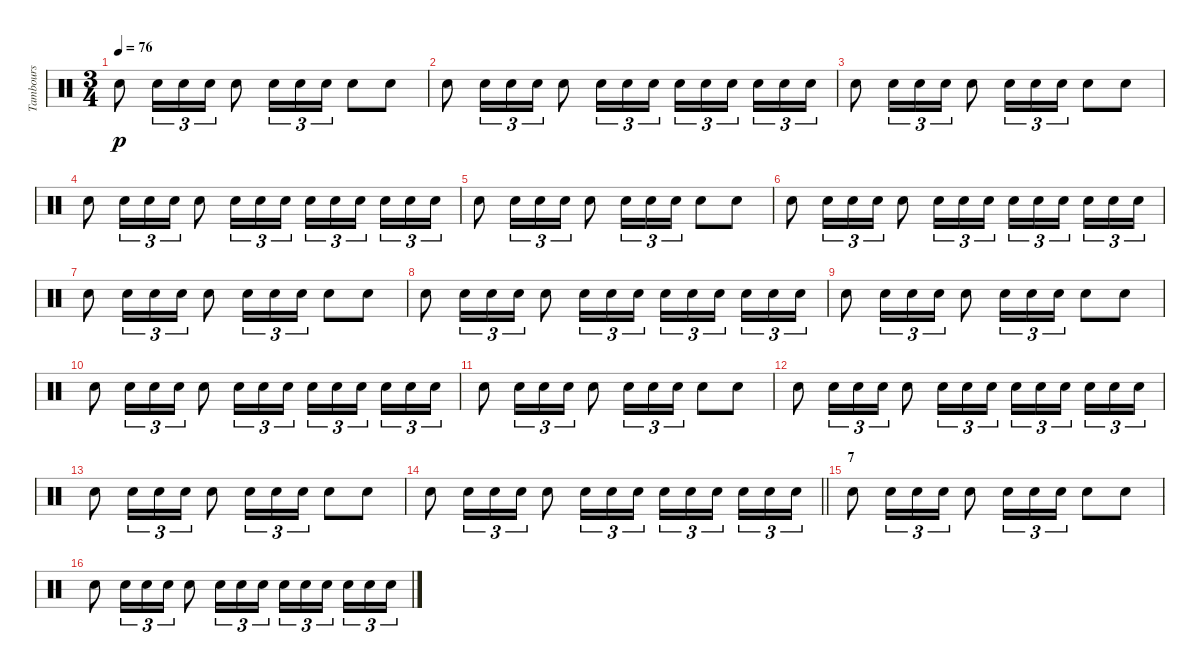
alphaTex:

\track ("Tambours" "Tambours") {instrument percussion}
\staff {score}
\articulation defaults
\ts (3 4)
\tempo 76
\clef neutral
\ks c "Snare (hit) 2".8{dy p} "Snare (hit) 2".16{tu (3 2)} "Snare (hit) 2".16{tu (3 2)} "Snare (hit) 2".16{tu (3 2)} "Snare (hit) 2".8 "Snare (hit) 2".16{tu (3 2)} "Snare (hit) 2".16{tu (3 2)} "Snare (hit) 2".16{tu (3 2)} "Snare (hit) 2".8 "Snare (hit) 2".8
|
"Snare (hit) 2".8 "Snare (hit) 2".16{tu (3 2)} "Snare (hit) 2".16{tu (3 2)} "Snare (hit) 2".16{tu (3 2)} "Snare (hit) 2".8 "Snare (hit) 2".16{tu (3 2)} "Snare (hit) 2".16{tu (3 2)} "Snare (hit) 2".16{tu (3 2)} "Snare (hit) 2".16{tu (3 2)} "Snare (hit) 2".16{tu (3 2)} "Snare (hit) 2".16{tu (3 2) beam splitsecondary} "Snare (hit) 2".16{tu (3 2)} "Snare (hit) 2".16{tu (3 2)} "Snare (hit) 2".16{tu (3 2)} |
"Snare (hit) 2".8 "Snare (hit) 2".16{tu (3 2)} "Snare (hit) 2".16{tu (3 2)} "Snare (hit) 2".16{tu (3 2)} "Snare (hit) 2".8 "Snare (hit) 2".16{tu (3 2)} "Snare (hit) 2".16{tu (3 2)} "Snare (hit) 2".16{tu (3 2)} "Snare (hit) 2".8 "Snare (hit) 2".8 |
"Snare (hit) 2".8 "Snare (hit) 2".16{tu (3 2)} "Snare (hit) 2".16{tu (3 2)} "Snare (hit) 2".16{tu (3 2)} "Snare (hit) 2".8 "Snare (hit) 2".16{tu (3 2)} "Snare (hit) 2".16{tu (3 2)} "Snare (hit) 2".16{tu (3 2)} "Snare (hit) 2".16{tu (3 2)} "Snare (hit) 2".16{tu (3 2)} "Snare (hit) 2".16{tu (3 2) beam splitsecondary} "Snare (hit) 2".16{tu (3 2)} "Snare (hit) 2".16{tu (3 2)} "Snare (hit) 2".16{tu (3 2)} |
"Snare (hit) 2".8 "Snare (hit) 2".16{tu (3 2)} "Snare (hit) 2".16{tu (3 2)} "Snare (hit) 2".16{tu (3 2)} "Snare (hit) 2".8 "Snare (hit) 2".16{tu (3 2)} "Snare (hit) 2".16{tu (3 2)} "Snare (hit) 2".16{tu (3 2)} "Snare (hit) 2".8 "Snare (hit) 2".8 |
"Snare (hit) 2".8 "Snare (hit) 2".16{tu (3 2)} "Snare (hit) 2".16{tu (3 2)} "Snare (hit) 2".16{tu (3 2)} "Snare (hit) 2".8 "Snare (hit) 2".16{tu (3 2)} "Snare (hit) 2".16{tu (3 2)} "Snare (hit) 2".16{tu (3 2)} "Snare (hit) 2".16{tu (3 2)} "Snare (hit) 2".16{tu (3 2)} "Snare (hit) 2".16{tu (3 2) beam splitsecondary} "Snare (hit) 2".16{tu (3 2)} "Snare (hit) 2".16{tu (3 2)} "Snare (hit) 2".16{tu (3 2)} |
"Snare (hit) 2".8 "Snare (hit) 2".16{tu (3 2)} "Snare (hit) 2".16{tu (3 2)} "Snare (hit) 2".16{tu (3 2)} "Snare (hit) 2".8 "Snare (hit) 2".16{tu (3 2)} "Snare (hit) 2".16{tu (3 2)} "Snare (hit) 2".16{tu (3 2)} "Snare (hit) 2".8 "Snare (hit) 2".8 |
"Snare (hit) 2".8 "Snare (hit) 2".16{tu (3 2)} "Snare (hit) 2".16{tu (3 2)} "Snare (hit) 2".16{tu (3 2)} "Snare (hit) 2".8 "Snare (hit) 2".16{tu (3 2)} "Snare (hit) 2".16{tu (3 2)} "Snare (hit) 2".16{tu (3 2)} "Snare (hit) 2".16{tu (3 2)} "Snare (hit) 2".16{tu (3 2)} "Snare (hit) 2".16{tu (3 2) beam splitsecondary} "Snare (hit) 2".16{tu (3 2)} "Snare (hit) 2".16{tu (3 2)} "Snare (hit) 2".16{tu (3 2)} |
"Snare (hit) 2".8 "Snare (hit) 2".16{tu (3 2)} "Snare (hit) 2".16{tu (3 2)} "Snare (hit) 2".16{tu (3 2)} "Snare (hit) 2".8 "Snare (hit) 2".16{tu (3 2)} "Snare (hit) 2".16{tu (3 2)} "Snare (hit) 2".16{tu (3 2)} "Snare (hit) 2".8 "Snare (hit) 2".8 |
"Snare (hit) 2".8 "Snare (hit) 2".16{tu (3 2)} "Snare (hit) 2".16{tu (3 2)} "Snare (hit) 2".16{tu (3 2)} "Snare (hit) 2".8 "Snare (hit) 2".16{tu (3 2)} "Snare (hit) 2".16{tu (3 2)} "Snare (hit) 2".16{tu (3 2)} "Snare (hit) 2".16{tu (3 2)} "Snare (hit) 2".16{tu (3 2)} "Snare (hit) 2".16{tu (3 2) beam splitsecondary} "Snare (hit) 2".16{tu (3 2)} "Snare (hit) 2".16{tu (3 2)} "Snare (hit) 2".16{tu (3 2)} |
"Snare (hit) 2".8 "Snare (hit) 2".16{tu (3 2)} "Snare (hit) 2".16{tu (3 2)} "Snare (hit) 2".16{tu (3 2)} "Snare (hit) 2".8 "Snare (hit) 2".16{tu (3 2)} "Snare (hit) 2".16{tu (3 2)} "Snare (hit) 2".16{tu (3 2)} "Snare (hit) 2".8 "Snare (hit) 2".8 |
"Snare (hit) 2".8 "Snare (hit) 2".16{tu (3 2)} "Snare (hit) 2".16{tu (3 2)} "Snare (hit) 2".16{tu (3 2)} "Snare (hit) 2".8 "Snare (hit) 2".16{tu (3 2)} "Snare (hit) 2".16{tu (3 2)} "Snare (hit) 2".16{tu (3 2)} "Snare (hit) 2".16{tu (3 2)} "Snare (hit) 2".16{tu (3 2)} "Snare (hit) 2".16{tu (3 2) beam splitsecondary} "Snare (hit) 2".16{tu (3 2)} "Snare (hit) 2".16{tu (3 2)} "Snare (hit) 2".16{tu (3 2)} |
"Snare (hit) 2".8 "Snare (hit) 2".16{tu (3 2)} "Snare (hit) 2".16{tu (3 2)} "Snare (hit) 2".16{tu (3 2)} "Snare (hit) 2".8 "Snare (hit) 2".16{tu (3 2)} "Snare (hit) 2".16{tu (3 2)} "Snare (hit) 2".16{tu (3 2)} "Snare (hit) 2".8 "Snare (hit) 2".8 |
\barLineRight lightlight "Snare (hit) 2".8 "Snare (hit) 2".16{tu (3 2)} "Snare (hit) 2".16{tu (3 2)} "Snare (hit) 2".16{tu (3 2)} "Snare (hit) 2".8 "Snare (hit) 2".16{tu (3 2)} "Snare (hit) 2".16{tu (3 2)} "Snare (hit) 2".16{tu (3 2)} "Snare (hit) 2".16{tu (3 2)} "Snare (hit) 2".16{tu (3 2)} "Snare (hit) 2".16{tu (3 2) beam splitsecondary} "Snare (hit) 2".16{tu (3 2)} "Snare (hit) 2".16{tu (3 2)} "Snare (hit) 2".16{tu (3 2)}
|
\section ("" "7")
"Snare (hit) 2".8 "Snare (hit) 2".16{tu (3 2)} "Snare (hit) 2".16{tu (3 2)} "Snare (hit) 2".16{tu (3 2)} "Snare (hit) 2".8 "Snare (hit) 2".16{tu (3 2)} "Snare (hit) 2".16{tu (3 2)} "Snare (hit) 2".16{tu (3 2)} "Snare (hit) 2".8 "Snare (hit) 2".8 |
"Snare (hit) 2".8 "Snare (hit) 2".16{tu (3 2)} "Snare (hit) 2".16{tu (3 2)} "Snare (hit) 2".16{tu (3 2)} "Snare (hit) 2".8 "Snare (hit) 2".16{tu (3 2)} "Snare (hit) 2".16{tu (3 2)} "Snare (hit) 2".16{tu (3 2)} "Snare (hit) 2".16{tu (3 2)} "Snare (hit) 2".16{tu (3 2)} "Snare (hit) 2".16{tu (3 2) beam splitsecondary} "Snare (hit) 2".16{tu (3 2)} "Snare (hit) 2".16{tu (3 2)} "Snare (hit) 2".16{tu (3 2)}
